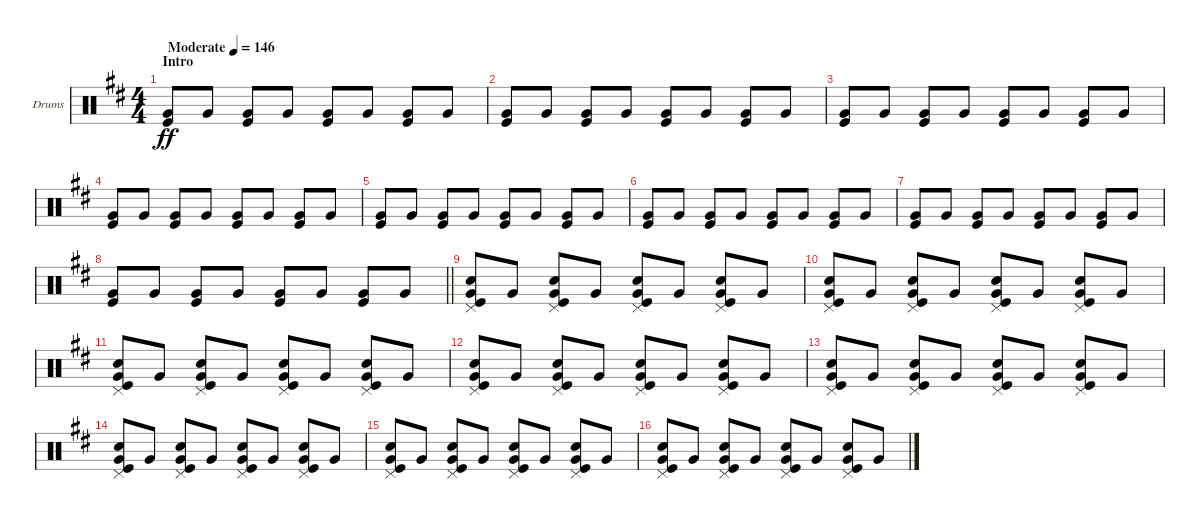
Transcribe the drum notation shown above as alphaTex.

\bracketExtendMode groupsimilarinstruments
\firstSystemTrackNameOrientation horizontal
\otherSystemsTrackNameOrientation horizontal
\track ("Fabrizio Moretti" "Drums") {instrument percussion}
\staff {score}
\articulation defaults
\ts (4 4)
\beaming (8 2 2 2 2)
\section ("" "Intro")
\tempo (146 "Moderate")
\clef neutral
\ks d
("Very Low Tom (hit)" "Kick (hit)").8{dy ff} "Very Low Tom (hit)".8 ("Very Low Tom (hit)" "Kick (hit)").8 "Very Low Tom (hit)".8 ("Very Low Tom (hit)" "Kick (hit)").8 "Very Low Tom (hit)".8 ("Very Low Tom (hit)" "Kick (hit)").8 "Very Low Tom (hit)".8 |
("Very Low Tom (hit)" "Kick (hit)").8 "Very Low Tom (hit)".8 ("Very Low Tom (hit)" "Kick (hit)").8 "Very Low Tom (hit)".8 ("Very Low Tom (hit)" "Kick (hit)").8 "Very Low Tom (hit)".8 ("Very Low Tom (hit)" "Kick (hit)").8 "Very Low Tom (hit)".8 |
("Very Low Tom (hit)" "Kick (hit)").8 "Very Low Tom (hit)".8 ("Very Low Tom (hit)" "Kick (hit)").8 "Very Low Tom (hit)".8 ("Very Low Tom (hit)" "Kick (hit)").8 "Very Low Tom (hit)".8 ("Very Low Tom (hit)" "Kick (hit)").8 "Very Low Tom (hit)".8 |
("Very Low Tom (hit)" "Kick (hit)").8 "Very Low Tom (hit)".8 ("Very Low Tom (hit)" "Kick (hit)").8 "Very Low Tom (hit)".8 ("Very Low Tom (hit)" "Kick (hit)").8 "Very Low Tom (hit)".8 ("Very Low Tom (hit)" "Kick (hit)").8 "Very Low Tom (hit)".8 |
("Very Low Tom (hit)" "Kick (hit)").8 "Very Low Tom (hit)".8 ("Very Low Tom (hit)" "Kick (hit)").8 "Very Low Tom (hit)".8 ("Very Low Tom (hit)" "Kick (hit)").8 "Very Low Tom (hit)".8 ("Very Low Tom (hit)" "Kick (hit)").8 "Very Low Tom (hit)".8 |
("Very Low Tom (hit)" "Kick (hit)").8 "Very Low Tom (hit)".8 ("Very Low Tom (hit)" "Kick (hit)").8 "Very Low Tom (hit)".8 ("Very Low Tom (hit)" "Kick (hit)").8 "Very Low Tom (hit)".8 ("Very Low Tom (hit)" "Kick (hit)").8 "Very Low Tom (hit)".8 |
("Very Low Tom (hit)" "Kick (hit)").8 "Very Low Tom (hit)".8 ("Very Low Tom (hit)" "Kick (hit)").8 "Very Low Tom (hit)".8 ("Very Low Tom (hit)" "Kick (hit)").8 "Very Low Tom (hit)".8 ("Very Low Tom (hit)" "Kick (hit)").8 "Very Low Tom (hit)".8 |
\barLineRight lightlight
("Very Low Tom (hit)" "Kick (hit)").8 "Very Low Tom (hit)".8 ("Very Low Tom (hit)" "Kick (hit)").8 "Very Low Tom (hit)".8 ("Very Low Tom (hit)" "Kick (hit)").8 "Very Low Tom (hit)".8 ("Very Low Tom (hit)" "Kick (hit)").8 "Very Low Tom (hit)".8 |
("Very Low Tom (hit)" "Pedal Hi-Hat (hit)" "Snare (hit) 2" "Kick (hit)").8 "Very Low Tom (hit)".8 ("Very Low Tom (hit)" "Pedal Hi-Hat (hit)" "Snare (hit) 2" "Kick (hit)").8 "Very Low Tom (hit)".8 ("Very Low Tom (hit)" "Pedal Hi-Hat (hit)" "Snare (hit) 2" "Kick (hit)").8 "Very Low Tom (hit)".8 ("Very Low Tom (hit)" "Pedal Hi-Hat (hit)" "Snare (hit) 2" "Kick (hit)").8 "Very Low Tom (hit)".8 |
("Very Low Tom (hit)" "Pedal Hi-Hat (hit)" "Snare (hit) 2" "Kick (hit)").8 "Very Low Tom (hit)".8 ("Very Low Tom (hit)" "Pedal Hi-Hat (hit)" "Snare (hit) 2" "Kick (hit)").8 "Very Low Tom (hit)".8 ("Very Low Tom (hit)" "Pedal Hi-Hat (hit)" "Snare (hit) 2" "Kick (hit)").8 "Very Low Tom (hit)".8 ("Very Low Tom (hit)" "Pedal Hi-Hat (hit)" "Snare (hit) 2" "Kick (hit)").8 "Very Low Tom (hit)".8 |
("Very Low Tom (hit)" "Pedal Hi-Hat (hit)" "Snare (hit) 2" "Kick (hit)").8 "Very Low Tom (hit)".8 ("Very Low Tom (hit)" "Pedal Hi-Hat (hit)" "Snare (hit) 2" "Kick (hit)").8 "Very Low Tom (hit)".8 ("Very Low Tom (hit)" "Pedal Hi-Hat (hit)" "Snare (hit) 2" "Kick (hit)").8 "Very Low Tom (hit)".8 ("Very Low Tom (hit)" "Pedal Hi-Hat (hit)" "Snare (hit) 2" "Kick (hit)").8 "Very Low Tom (hit)".8 |
("Very Low Tom (hit)" "Pedal Hi-Hat (hit)" "Snare (hit) 2" "Kick (hit)").8 "Very Low Tom (hit)".8 ("Very Low Tom (hit)" "Pedal Hi-Hat (hit)" "Snare (hit) 2" "Kick (hit)").8 "Very Low Tom (hit)".8 ("Very Low Tom (hit)" "Pedal Hi-Hat (hit)" "Snare (hit) 2" "Kick (hit)").8 "Very Low Tom (hit)".8 ("Very Low Tom (hit)" "Pedal Hi-Hat (hit)" "Snare (hit) 2" "Kick (hit)").8 "Very Low Tom (hit)".8 |
("Very Low Tom (hit)" "Pedal Hi-Hat (hit)" "Snare (hit) 2" "Kick (hit)").8 "Very Low Tom (hit)".8 ("Very Low Tom (hit)" "Pedal Hi-Hat (hit)" "Snare (hit) 2" "Kick (hit)").8 "Very Low Tom (hit)".8 ("Very Low Tom (hit)" "Pedal Hi-Hat (hit)" "Snare (hit) 2" "Kick (hit)").8 "Very Low Tom (hit)".8 ("Very Low Tom (hit)" "Pedal Hi-Hat (hit)" "Snare (hit) 2" "Kick (hit)").8 "Very Low Tom (hit)".8 |
("Very Low Tom (hit)" "Pedal Hi-Hat (hit)" "Snare (hit) 2" "Kick (hit)").8 "Very Low Tom (hit)".8 ("Very Low Tom (hit)" "Pedal Hi-Hat (hit)" "Snare (hit) 2" "Kick (hit)").8 "Very Low Tom (hit)".8 ("Very Low Tom (hit)" "Pedal Hi-Hat (hit)" "Snare (hit) 2" "Kick (hit)").8 "Very Low Tom (hit)".8 ("Very Low Tom (hit)" "Pedal Hi-Hat (hit)" "Snare (hit) 2" "Kick (hit)").8 "Very Low Tom (hit)".8 |
("Very Low Tom (hit)" "Pedal Hi-Hat (hit)" "Snare (hit) 2" "Kick (hit)").8 "Very Low Tom (hit)".8 ("Very Low Tom (hit)" "Pedal Hi-Hat (hit)" "Snare (hit) 2" "Kick (hit)").8 "Very Low Tom (hit)".8 ("Very Low Tom (hit)" "Pedal Hi-Hat (hit)" "Snare (hit) 2" "Kick (hit)").8 "Very Low Tom (hit)".8 ("Very Low Tom (hit)" "Pedal Hi-Hat (hit)" "Snare (hit) 2" "Kick (hit)").8 "Very Low Tom (hit)".8 |
("Very Low Tom (hit)" "Pedal Hi-Hat (hit)" "Snare (hit) 2" "Kick (hit)").8 "Very Low Tom (hit)".8 ("Very Low Tom (hit)" "Pedal Hi-Hat (hit)" "Snare (hit) 2" "Kick (hit)").8 "Very Low Tom (hit)".8 ("Very Low Tom (hit)" "Pedal Hi-Hat (hit)" "Snare (hit) 2" "Kick (hit)").8 "Very Low Tom (hit)".8 ("Very Low Tom (hit)" "Pedal Hi-Hat (hit)" "Snare (hit) 2" "Kick (hit)").8 "Very Low Tom (hit)".8
